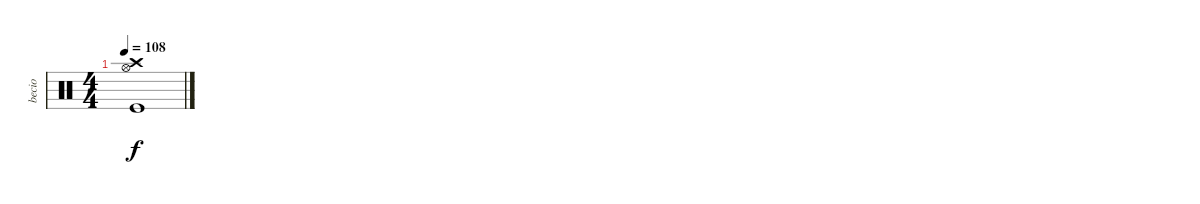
\track ("becio" "becio") {instrument percussion}
\staff {score}
\articulation defaults
\ts (4 4)
\tempo 108
\clef neutral
\ks c
("Kick (hit)" "Hi-Hat (open)" "Crash high (hit)").1{dy f}
